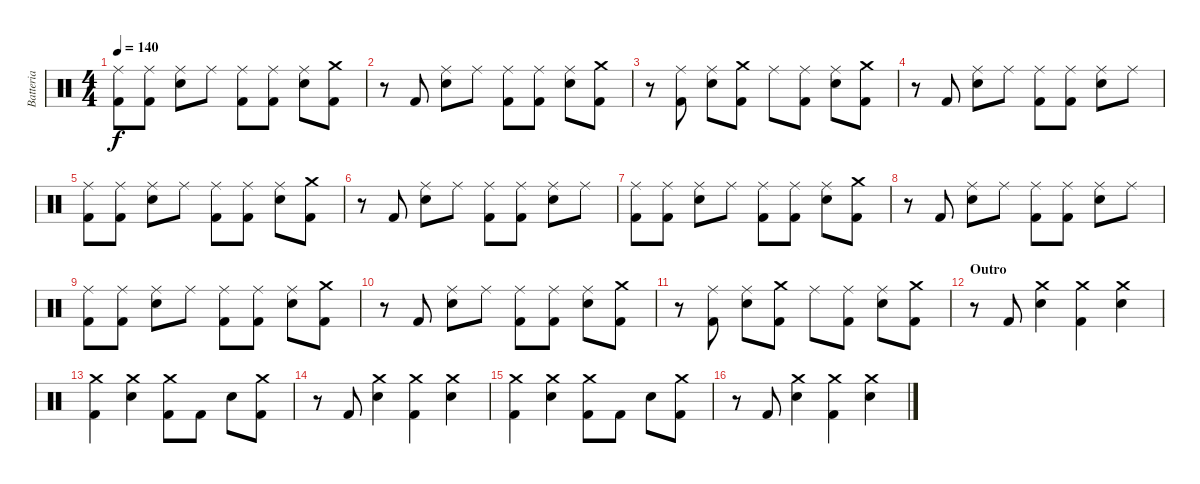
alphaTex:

\track ("Batteria" "Batteria") {instrument percussion}
\staff {score}
\articulation defaults
\ts (4 4)
\tempo 140
\clef neutral
\ks c
("Ride (middle)" "Kick (hit) 2").8{dy f} ("Ride (middle)" "Kick (hit) 2").8 ("Ride (middle)" "Snare (hit) 2").8 "Ride (middle)".8 ("Ride (middle)" "Kick (hit) 2").8 ("Ride (middle)" "Kick (hit) 2").8 ("Ride (middle)" "Snare (hit) 2").8 ("Crash medium (hit)" "Kick (hit) 2").8 |
r.8 "Kick (hit) 2".8 ("Ride (middle)" "Snare (hit) 2").8 "Ride (middle)".8 ("Ride (middle)" "Kick (hit) 2").8 ("Ride (middle)" "Kick (hit) 2").8 ("Ride (middle)" "Snare (hit) 2").8 ("Crash medium (hit)" "Kick (hit) 2").8 |
r.8 ("Ride (middle)" "Kick (hit) 2").8 ("Ride (middle)" "Snare (hit) 2").8 ("Crash medium (hit)" "Kick (hit) 2").8 "Ride (middle)".8 ("Ride (middle)" "Kick (hit) 2").8 ("Ride (middle)" "Snare (hit) 2").8 ("Crash medium (hit)" "Kick (hit) 2").8 |
r.8 "Kick (hit) 2".8 ("Ride (middle)" "Snare (hit) 2").8 "Ride (middle)".8 ("Ride (middle)" "Kick (hit) 2").8 ("Ride (middle)" "Kick (hit) 2").8 ("Ride (middle)" "Snare (hit) 2").8 "Ride (middle)".8 |
("Ride (middle)" "Kick (hit) 2").8 ("Ride (middle)" "Kick (hit) 2").8 ("Ride (middle)" "Snare (hit) 2").8 "Ride (middle)".8 ("Ride (middle)" "Kick (hit) 2").8 ("Ride (middle)" "Kick (hit) 2").8 ("Ride (middle)" "Snare (hit) 2").8 ("Crash medium (hit)" "Kick (hit) 2").8 |
r.8 "Kick (hit) 2".8 ("Ride (middle)" "Snare (hit) 2").8 "Ride (middle)".8 ("Ride (middle)" "Kick (hit) 2").8 ("Ride (middle)" "Kick (hit) 2").8 ("Ride (middle)" "Snare (hit) 2").8 "Ride (middle)".8 |
("Ride (middle)" "Kick (hit) 2").8 ("Ride (middle)" "Kick (hit) 2").8 ("Ride (middle)" "Snare (hit) 2").8 "Ride (middle)".8 ("Ride (middle)" "Kick (hit) 2").8 ("Ride (middle)" "Kick (hit) 2").8 ("Ride (middle)" "Snare (hit) 2").8 ("Crash medium (hit)" "Kick (hit) 2").8 |
r.8 "Kick (hit) 2".8 ("Ride (middle)" "Snare (hit) 2").8 "Ride (middle)".8 ("Ride (middle)" "Kick (hit) 2").8 ("Ride (middle)" "Kick (hit) 2").8 ("Ride (middle)" "Snare (hit) 2").8 "Ride (middle)".8 |
("Ride (middle)" "Kick (hit) 2").8 ("Ride (middle)" "Kick (hit) 2").8 ("Ride (middle)" "Snare (hit) 2").8 "Ride (middle)".8 ("Ride (middle)" "Kick (hit) 2").8 ("Ride (middle)" "Kick (hit) 2").8 ("Ride (middle)" "Snare (hit) 2").8 ("Crash medium (hit)" "Kick (hit) 2").8 |
r.8 "Kick (hit) 2".8 ("Ride (middle)" "Snare (hit) 2").8 "Ride (middle)".8 ("Ride (middle)" "Kick (hit) 2").8 ("Ride (middle)" "Kick (hit) 2").8 ("Ride (middle)" "Snare (hit) 2").8 ("Crash medium (hit)" "Kick (hit) 2").8 |
r.8 ("Ride (middle)" "Kick (hit) 2").8 ("Ride (middle)" "Snare (hit) 2").8 ("Crash medium (hit)" "Kick (hit) 2").8 "Ride (middle)".8 ("Ride (middle)" "Kick (hit) 2").8 ("Ride (middle)" "Snare (hit) 2").8 ("Crash medium (hit)" "Kick (hit) 2").8 |
\section ("" "Outro")
r.8 "Kick (hit) 2".8 ("Crash medium (hit)" "Snare (hit) 2").4 ("Crash medium (hit)" "Kick (hit) 2").4 ("Crash medium (hit)" "Snare (hit) 2").4 |
("Crash medium (hit)" "Kick (hit) 2").4 ("Crash medium (hit)" "Snare (hit) 2").4 ("Crash medium (hit)" "Kick (hit) 2").8 "Kick (hit) 2".8 "Snare (hit) 2".8 ("Crash medium (hit)" "Kick (hit) 2").8 |
r.8 "Kick (hit) 2".8 ("Crash medium (hit)" "Snare (hit) 2").4 ("Crash medium (hit)" "Kick (hit) 2").4 ("Crash medium (hit)" "Snare (hit) 2").4 |
("Crash medium (hit)" "Kick (hit) 2").4 ("Crash medium (hit)" "Snare (hit) 2").4 ("Crash medium (hit)" "Kick (hit) 2").8 "Kick (hit) 2".8 "Snare (hit) 2".8 ("Crash medium (hit)" "Kick (hit) 2").8 |
r.8 "Kick (hit) 2".8 ("Crash medium (hit)" "Snare (hit) 2").4 ("Crash medium (hit)" "Kick (hit) 2").4 ("Crash medium (hit)" "Snare (hit) 2").4
